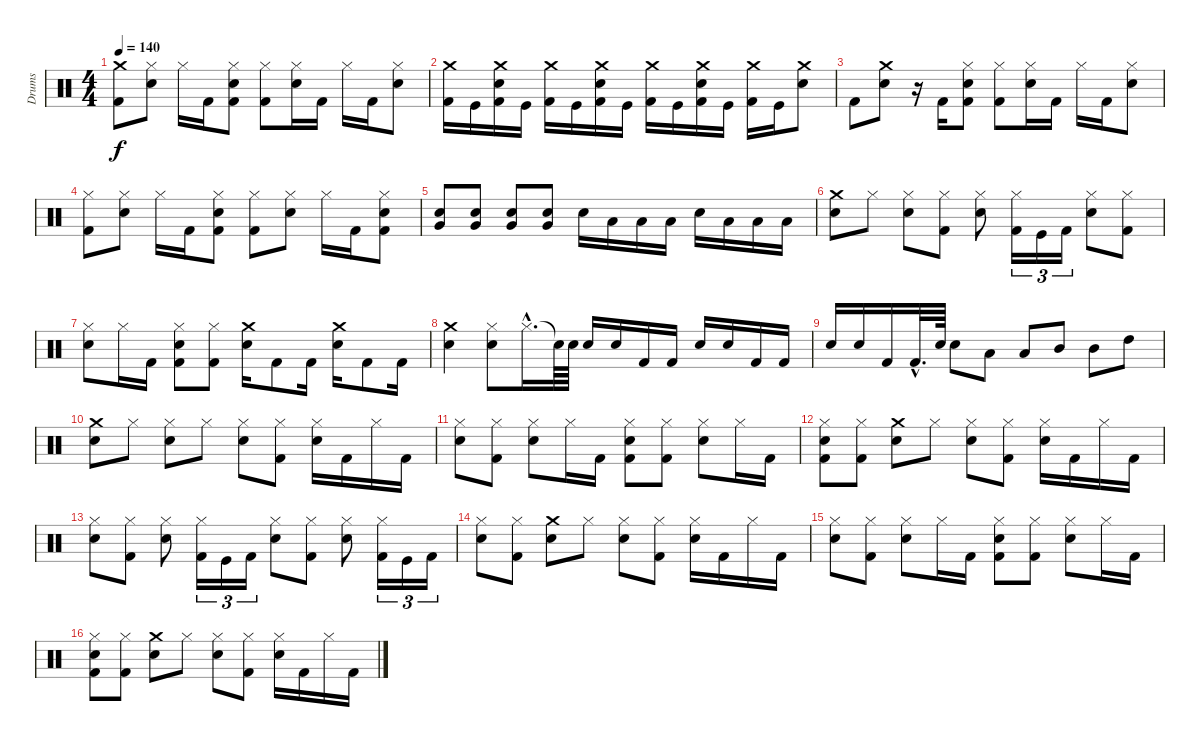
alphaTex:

\track ("Drums" "Drums") {instrument percussion}
\staff {score}
\articulation defaults
\ts (4 4)
\tempo 140
\clef neutral
\ks c
("Kick (hit) 2" "Crash medium (hit)").8{dy f} ("Snare (hit) 2" "Hi-Hat (closed)").8 "Hi-Hat (closed)".16 "Kick (hit) 2".16 ("Kick (hit) 2" "Snare (hit) 2" "Hi-Hat (closed)").8 ("Kick (hit) 2" "Hi-Hat (closed)").8 ("Snare (hit) 2" "Hi-Hat (closed)").16 "Kick (hit) 2".16 "Hi-Hat (closed)".16 "Kick (hit) 2".16 ("Snare (hit) 2" "Hi-Hat (closed)").8 |
("Crash medium (hit)" "Kick (hit) 2").16 "Kick (hit)".16 ("Snare (hit) 2" "Crash medium (hit)" "Kick (hit) 2").16 "Kick (hit)".16 ("Crash medium (hit)" "Kick (hit) 2").16 "Kick (hit)".16 ("Snare (hit) 2" "Crash medium (hit)" "Kick (hit) 2").16 "Kick (hit)".16 ("Crash medium (hit)" "Kick (hit) 2").16 "Kick (hit)".16 ("Snare (hit) 2" "Crash medium (hit)" "Kick (hit) 2").16 "Kick (hit)".16 ("Crash medium (hit)" "Kick (hit) 2").16 "Kick (hit)".16 ("Snare (hit) 2" "Crash medium (hit)").8 |
"Kick (hit) 2".8 ("Snare (hit) 2" "Crash medium (hit)").8 r.16 "Kick (hit) 2".16 ("Kick (hit) 2" "Hi-Hat (closed)" "Snare (hit) 2").8 ("Kick (hit) 2" "Hi-Hat (closed)").8 ("Snare (hit) 2" "Hi-Hat (closed)").16 "Kick (hit) 2".16 "Hi-Hat (closed)".16 "Kick (hit) 2".16 ("Snare (hit) 2" "Hi-Hat (closed)").8 |
("Hi-Hat (closed)" "Kick (hit) 2").8 ("Snare (hit) 2" "Hi-Hat (closed)").8 "Hi-Hat (closed)".16 "Kick (hit) 2".16 ("Snare (hit) 2" "Hi-Hat (closed)" "Kick (hit) 2").8 ("Hi-Hat (closed)" "Kick (hit) 2").8 ("Snare (hit) 2" "Hi-Hat (closed)").8 "Hi-Hat (closed)".16 "Kick (hit) 2".16 ("Snare (hit) 2" "Hi-Hat (closed)" "Kick (hit) 2").8 |
("Very Low Tom (hit)" "Snare (hit) 2").8 ("Very Low Tom (hit)" "Snare (hit) 2").8 ("Very Low Tom (hit)" "Snare (hit) 2").8 ("Very Low Tom (hit)" "Snare (hit) 2").8 "Snare (hit) 2".16 "Low Tom (hit)".16 "Low Tom (hit)".16 "Low Tom (hit)".16 "Snare (hit) 2".16 "Low Tom (hit)".16 "Low Tom (hit)".16 "Low Tom (hit)".16 |
("Snare (hit) 2" "Crash medium (hit)").8 "Hi-Hat (closed)".8 ("Snare (hit) 2" "Hi-Hat (closed)").8 ("Kick (hit) 2" "Hi-Hat (closed)").8 ("Hi-Hat (closed)" "Snare (hit) 2").8 ("Hi-Hat (closed)" "Kick (hit) 2").16{tu (3 2)} "Kick (hit)".16{tu (3 2)} "Kick (hit) 2".16{tu (3 2)} ("Hi-Hat (closed)" "Snare (hit) 2").8 ("Kick (hit) 2" "Hi-Hat (closed)").8 |
("Snare (hit) 2" "Hi-Hat (closed)").8 "Hi-Hat (closed)".16 "Kick (hit) 2".16 ("Kick (hit) 2" "Snare (hit) 2" "Hi-Hat (closed)").8 ("Kick (hit) 2" "Hi-Hat (closed)").8 ("Snare (hit) 2" "Crash medium (hit)").16 "Kick (hit) 2".8 "Kick (hit) 2".16 ("Snare (hit) 2" "Crash medium (hit)").16 "Kick (hit) 2".8 "Kick (hit) 2".16 |
("Snare (hit) 2" "Crash medium (hit)").4 ("Snare (hit) 2" "Hi-Hat (closed)").8 "Hi-Hat (closed)"{hac}.16{d} "Snare (hit)"{t}.64 "Snare (hit) 2".64 "Snare (hit) 2".16 "Snare (hit) 2".16 "Kick (hit) 2".16 "Kick (hit) 2".16 "Snare (hit) 2".16 "Snare (hit) 2".16 "Kick (hit) 2".16 "Kick (hit) 2".16 |
"Snare (hit) 2".16 "Snare (hit) 2".16 "Kick (hit) 2".16 "Kick (hit) 2"{hac}.32{d} "Snare (hit) 2".64 "Snare (hit) 2".8 "Low Tom (hit)".8 "Low Tom (hit)".8 "Mid Tom (hit)".8 "Mid Tom (hit)".8 "High Tom (hit)".8 |
("Crash medium (hit)" "Snare (hit) 2").8 "Hi-Hat (closed)".8 ("Snare (hit) 2" "Hi-Hat (closed)").8 "Hi-Hat (closed)".8 ("Snare (hit) 2" "Hi-Hat (closed)").8 ("Kick (hit) 2" "Hi-Hat (closed)").8 ("Snare (hit) 2" "Hi-Hat (closed)").16 "Kick (hit) 2".16 "Hi-Hat (closed)".16 "Kick (hit) 2".16 |
("Hi-Hat (closed)" "Snare (hit) 2").8 ("Kick (hit) 2" "Hi-Hat (closed)").8 ("Snare (hit) 2" "Hi-Hat (closed)").8 "Hi-Hat (closed)".16 "Kick (hit) 2".16 ("Kick (hit) 2" "Snare (hit) 2" "Hi-Hat (closed)").8 ("Kick (hit) 2" "Hi-Hat (closed)").8 ("Snare (hit) 2" "Hi-Hat (closed)").8 "Hi-Hat (closed)".16 "Kick (hit) 2".16 |
("Hi-Hat (closed)" "Snare (hit) 2" "Kick (hit) 2").8 ("Hi-Hat (closed)" "Kick (hit) 2").8 ("Crash medium (hit)" "Snare (hit) 2").8 "Hi-Hat (closed)".8 ("Snare (hit) 2" "Hi-Hat (closed)").8 ("Hi-Hat (closed)" "Kick (hit) 2").8 ("Snare (hit) 2" "Hi-Hat (closed)").16 "Kick (hit) 2".16 "Hi-Hat (closed)".16 "Kick (hit) 2".16 |
("Hi-Hat (closed)" "Snare (hit) 2").8 ("Kick (hit) 2" "Hi-Hat (closed)").8 ("Snare (hit) 2" "Hi-Hat (closed)").8 ("Hi-Hat (closed)" "Kick (hit) 2").16{tu (3 2)} "Kick (hit)".16{tu (3 2)} "Kick (hit) 2".16{tu (3 2)} ("Snare (hit) 2" "Hi-Hat (closed)").8 ("Kick (hit) 2" "Hi-Hat (closed)").8 ("Snare (hit) 2" "Hi-Hat (closed)").8 ("Hi-Hat (closed)" "Kick (hit) 2").16{tu (3 2)} "Kick (hit)".16{tu (3 2)} "Kick (hit) 2".16{tu (3 2)} |
("Hi-Hat (closed)" "Snare (hit) 2").8 ("Kick (hit) 2" "Hi-Hat (closed)").8 ("Crash medium (hit)" "Snare (hit) 2").8 "Hi-Hat (closed)".8 ("Snare (hit) 2" "Hi-Hat (closed)").8 ("Hi-Hat (closed)" "Kick (hit) 2").8 ("Snare (hit) 2" "Hi-Hat (closed)").16 "Kick (hit) 2".16 "Hi-Hat (closed)".16 "Kick (hit) 2".16 |
("Hi-Hat (closed)" "Snare (hit) 2").8 ("Kick (hit) 2" "Hi-Hat (closed)").8 ("Snare (hit) 2" "Hi-Hat (closed)").8 "Hi-Hat (closed)".16 "Kick (hit) 2".16 ("Kick (hit) 2" "Snare (hit) 2" "Hi-Hat (closed)").8 ("Kick (hit) 2" "Hi-Hat (closed)").8 ("Snare (hit) 2" "Hi-Hat (closed)").8 "Hi-Hat (closed)".16 "Kick (hit) 2".16 |
("Hi-Hat (closed)" "Snare (hit) 2" "Kick (hit) 2").8 ("Hi-Hat (closed)" "Kick (hit) 2").8 ("Crash medium (hit)" "Snare (hit) 2").8 "Hi-Hat (closed)".8 ("Snare (hit) 2" "Hi-Hat (closed)").8 ("Hi-Hat (closed)" "Kick (hit) 2").8 ("Snare (hit) 2" "Hi-Hat (closed)").16 "Kick (hit) 2".16 "Hi-Hat (closed)".16 "Kick (hit) 2".16
